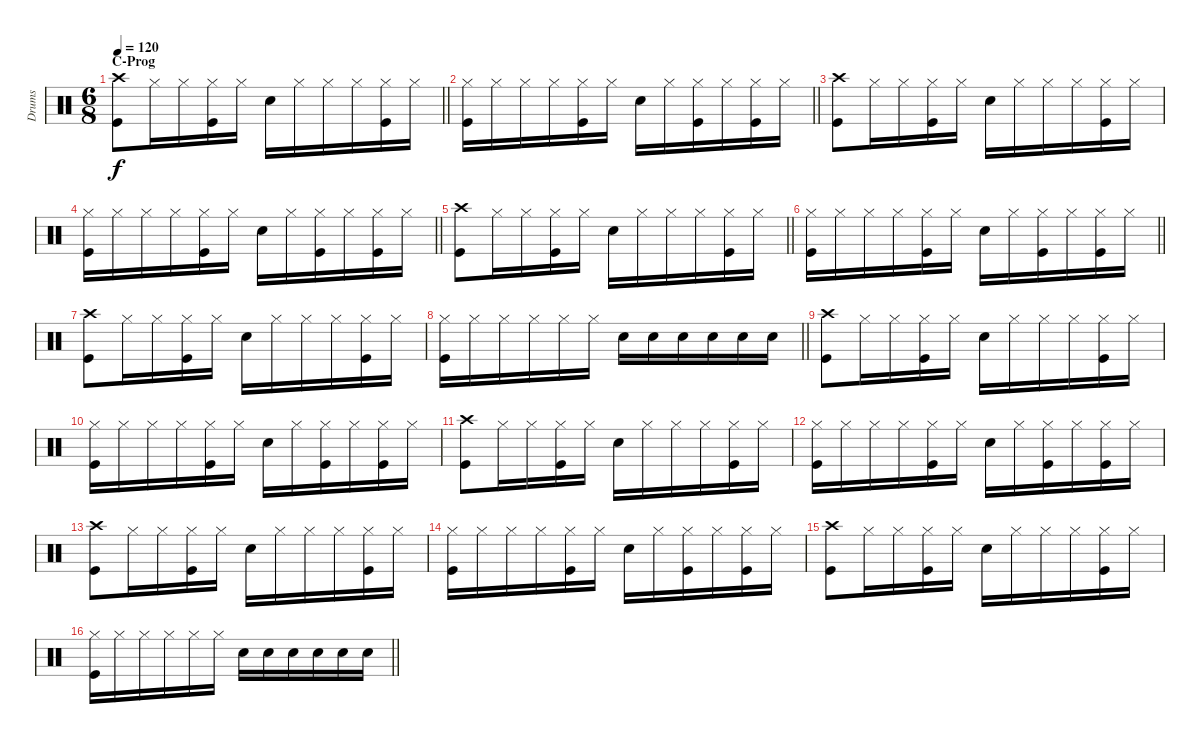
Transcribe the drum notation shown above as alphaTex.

\track ("Drums" "Drums") {instrument percussion}
\staff {score}
\articulation defaults
\ts (6 8)
\section ("" "C-Prog")
\tempo 120
\clef neutral
\barLineRight lightlight
\ks c
("Crash high (hit)" "Kick (hit)").8{dy f} "Hi-Hat (closed)".16 "Hi-Hat (closed)".16 ("Hi-Hat (closed)" "Kick (hit)").16 "Hi-Hat (closed)".16 "Electric Snare (hit)".16 "Hi-Hat (closed)".16 "Hi-Hat (closed)".16 "Hi-Hat (closed)".16 ("Hi-Hat (closed)" "Kick (hit)").16 "Hi-Hat (closed)".16 |
\barLineRight lightlight
("Hi-Hat (closed)" "Kick (hit)").16 "Hi-Hat (closed)".16 "Hi-Hat (closed)".16 "Hi-Hat (closed)".16 ("Hi-Hat (closed)" "Kick (hit)").16 "Hi-Hat (closed)".16 "Electric Snare (hit)".16 "Hi-Hat (closed)".16 ("Hi-Hat (closed)" "Kick (hit)").16 "Hi-Hat (closed)".16 ("Hi-Hat (closed)" "Kick (hit)").16 "Hi-Hat (closed)".16 |
("Crash high (hit)" "Kick (hit)").8 "Hi-Hat (closed)".16 "Hi-Hat (closed)".16 ("Hi-Hat (closed)" "Kick (hit)").16 "Hi-Hat (closed)".16 "Electric Snare (hit)".16 "Hi-Hat (closed)".16 "Hi-Hat (closed)".16 "Hi-Hat (closed)".16 ("Hi-Hat (closed)" "Kick (hit)").16 "Hi-Hat (closed)".16 |
\barLineRight lightlight
("Hi-Hat (closed)" "Kick (hit)").16 "Hi-Hat (closed)".16 "Hi-Hat (closed)".16 "Hi-Hat (closed)".16 ("Hi-Hat (closed)" "Kick (hit)").16 "Hi-Hat (closed)".16 "Electric Snare (hit)".16 "Hi-Hat (closed)".16 ("Hi-Hat (closed)" "Kick (hit)").16 "Hi-Hat (closed)".16 ("Hi-Hat (closed)" "Kick (hit)").16 "Hi-Hat (closed)".16 |
\barLineRight lightlight
("Crash high (hit)" "Kick (hit)").8 "Hi-Hat (closed)".16 "Hi-Hat (closed)".16 ("Hi-Hat (closed)" "Kick (hit)").16 "Hi-Hat (closed)".16 "Electric Snare (hit)".16 "Hi-Hat (closed)".16 "Hi-Hat (closed)".16 "Hi-Hat (closed)".16 ("Hi-Hat (closed)" "Kick (hit)").16 "Hi-Hat (closed)".16 |
\barLineRight lightlight
("Hi-Hat (closed)" "Kick (hit)").16 "Hi-Hat (closed)".16 "Hi-Hat (closed)".16 "Hi-Hat (closed)".16 ("Hi-Hat (closed)" "Kick (hit)").16 "Hi-Hat (closed)".16 "Electric Snare (hit)".16 "Hi-Hat (closed)".16 ("Hi-Hat (closed)" "Kick (hit)").16 "Hi-Hat (closed)".16 ("Hi-Hat (closed)" "Kick (hit)").16 "Hi-Hat (closed)".16 |
("Crash high (hit)" "Kick (hit)").8 "Hi-Hat (closed)".16 "Hi-Hat (closed)".16 ("Hi-Hat (closed)" "Kick (hit)").16 "Hi-Hat (closed)".16 "Electric Snare (hit)".16 "Hi-Hat (closed)".16 "Hi-Hat (closed)".16 "Hi-Hat (closed)".16 ("Hi-Hat (closed)" "Kick (hit)").16 "Hi-Hat (closed)".16 |
\barLineRight lightlight
("Hi-Hat (closed)" "Kick (hit)").16 "Hi-Hat (closed)".16 "Hi-Hat (closed)".16 "Hi-Hat (closed)".16 "Hi-Hat (closed)".16 "Hi-Hat (closed)".16 "Electric Snare (hit)".16 "Electric Snare (hit)".16 "Electric Snare (hit)".16 "Electric Snare (hit)".16 "Electric Snare (hit)".16 "Electric Snare (hit)".16 |
("Crash high (hit)" "Kick (hit)").8 "Hi-Hat (closed)".16 "Hi-Hat (closed)".16 ("Hi-Hat (closed)" "Kick (hit)").16 "Hi-Hat (closed)".16 "Electric Snare (hit)".16 "Hi-Hat (closed)".16 "Hi-Hat (closed)".16 "Hi-Hat (closed)".16 ("Hi-Hat (closed)" "Kick (hit)").16 "Hi-Hat (closed)".16 |
("Hi-Hat (closed)" "Kick (hit)").16 "Hi-Hat (closed)".16 "Hi-Hat (closed)".16 "Hi-Hat (closed)".16 ("Hi-Hat (closed)" "Kick (hit)").16 "Hi-Hat (closed)".16 "Electric Snare (hit)".16 "Hi-Hat (closed)".16 ("Hi-Hat (closed)" "Kick (hit)").16 "Hi-Hat (closed)".16 ("Hi-Hat (closed)" "Kick (hit)").16 "Hi-Hat (closed)".16 |
("Crash high (hit)" "Kick (hit)").8 "Hi-Hat (closed)".16 "Hi-Hat (closed)".16 ("Hi-Hat (closed)" "Kick (hit)").16 "Hi-Hat (closed)".16 "Electric Snare (hit)".16 "Hi-Hat (closed)".16 "Hi-Hat (closed)".16 "Hi-Hat (closed)".16 ("Hi-Hat (closed)" "Kick (hit)").16 "Hi-Hat (closed)".16 |
("Hi-Hat (closed)" "Kick (hit)").16 "Hi-Hat (closed)".16 "Hi-Hat (closed)".16 "Hi-Hat (closed)".16 ("Hi-Hat (closed)" "Kick (hit)").16 "Hi-Hat (closed)".16 "Electric Snare (hit)".16 "Hi-Hat (closed)".16 ("Hi-Hat (closed)" "Kick (hit)").16 "Hi-Hat (closed)".16 ("Hi-Hat (closed)" "Kick (hit)").16 "Hi-Hat (closed)".16 |
("Crash high (hit)" "Kick (hit)").8 "Hi-Hat (closed)".16 "Hi-Hat (closed)".16 ("Hi-Hat (closed)" "Kick (hit)").16 "Hi-Hat (closed)".16 "Electric Snare (hit)".16 "Hi-Hat (closed)".16 "Hi-Hat (closed)".16 "Hi-Hat (closed)".16 ("Hi-Hat (closed)" "Kick (hit)").16 "Hi-Hat (closed)".16 |
("Hi-Hat (closed)" "Kick (hit)").16 "Hi-Hat (closed)".16 "Hi-Hat (closed)".16 "Hi-Hat (closed)".16 ("Hi-Hat (closed)" "Kick (hit)").16 "Hi-Hat (closed)".16 "Electric Snare (hit)".16 "Hi-Hat (closed)".16 ("Hi-Hat (closed)" "Kick (hit)").16 "Hi-Hat (closed)".16 ("Hi-Hat (closed)" "Kick (hit)").16 "Hi-Hat (closed)".16 |
("Crash high (hit)" "Kick (hit)").8 "Hi-Hat (closed)".16 "Hi-Hat (closed)".16 ("Hi-Hat (closed)" "Kick (hit)").16 "Hi-Hat (closed)".16 "Electric Snare (hit)".16 "Hi-Hat (closed)".16 "Hi-Hat (closed)".16 "Hi-Hat (closed)".16 ("Hi-Hat (closed)" "Kick (hit)").16 "Hi-Hat (closed)".16 |
\barLineRight lightlight
("Hi-Hat (closed)" "Kick (hit)").16 "Hi-Hat (closed)".16 "Hi-Hat (closed)".16 "Hi-Hat (closed)".16 "Hi-Hat (closed)".16 "Hi-Hat (closed)".16 "Electric Snare (hit)".16 "Electric Snare (hit)".16 "Electric Snare (hit)".16 "Electric Snare (hit)".16 "Electric Snare (hit)".16 "Electric Snare (hit)".16
